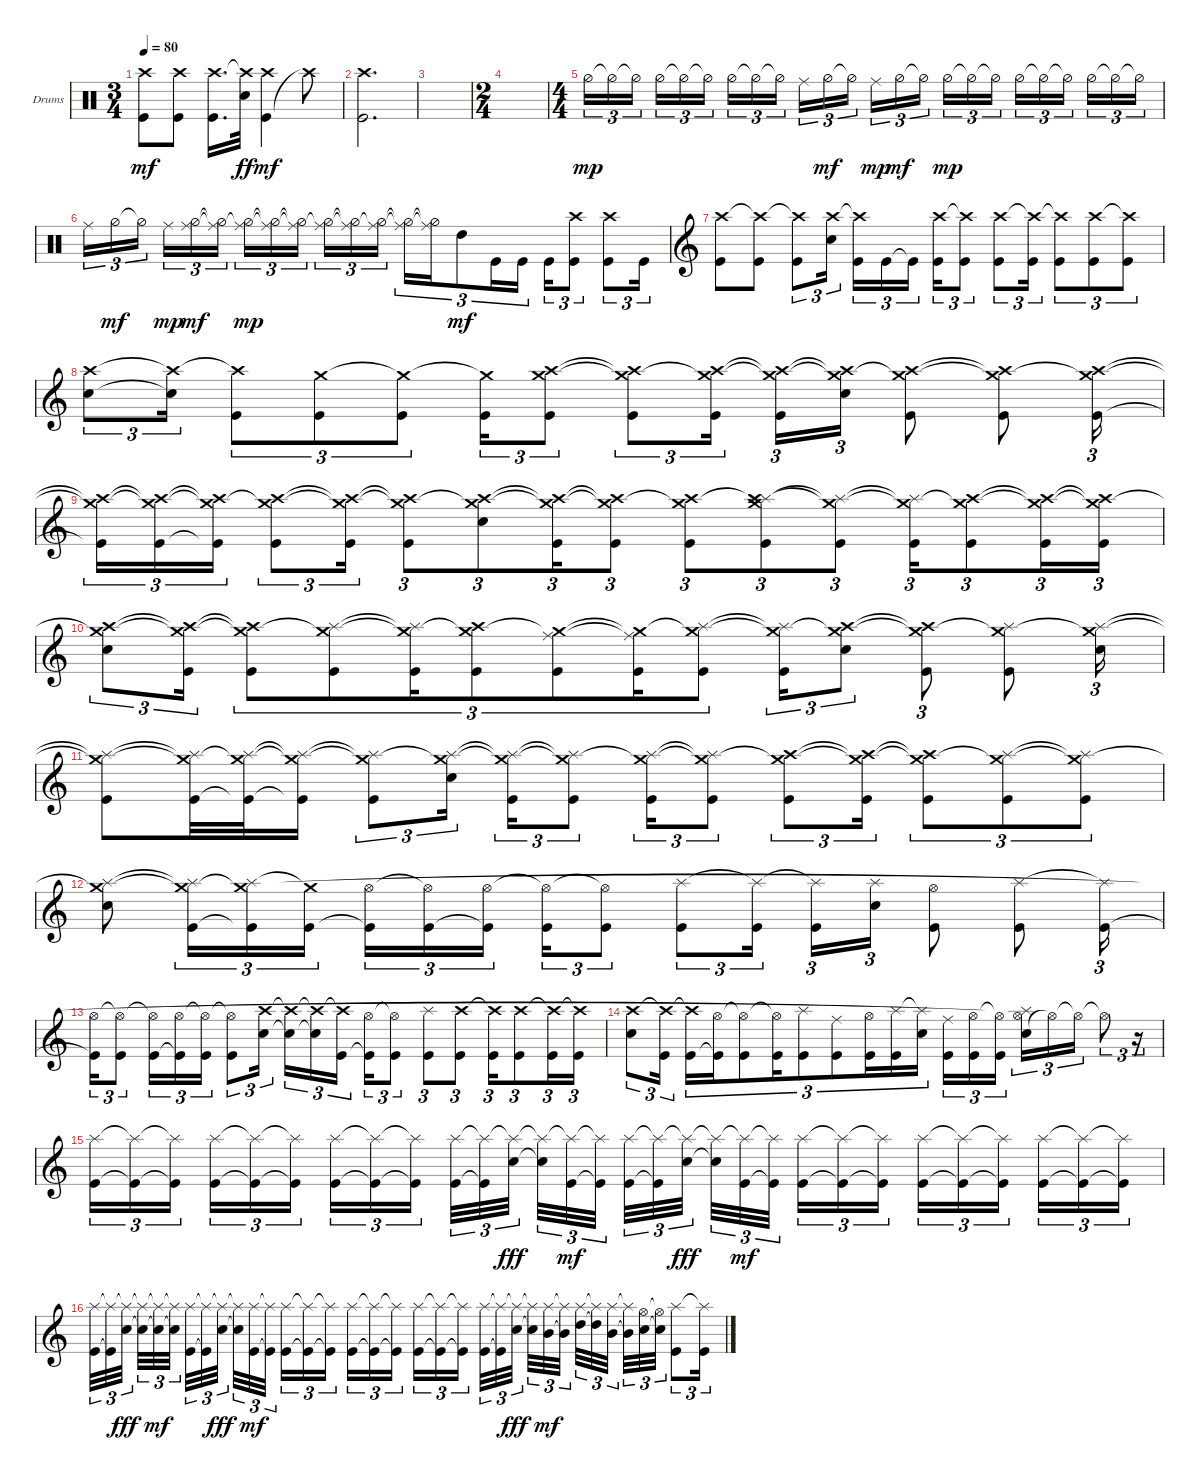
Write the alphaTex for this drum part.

\bracketExtendMode groupsimilarinstruments
\firstSystemTrackNameOrientation horizontal
\otherSystemsTrackNameOrientation horizontal
\track ("Drumkit" "Drums") {instrument percussion}
\staff {score}
\articulation defaults
\ts (3 4)
\tempo 80
\clef neutral
\ks c
("Kick (hit)" "Crash high (hit)").8{dy mf} ("Kick (hit)" "Crash high (hit)").8 ("Kick (hit)" "Crash high (hit)").16{d} ("Snare (hit) 2" "Crash high (hit)"{t}).32{dy ff} ("Kick (hit)" "Crash high (hit)").4{dy mf} "Crash high (hit)"{t}.8 |
("Kick (hit)" "Crash high (hit)").2{d} |
|
\ts (2 4)
|
\ts (4 4)
"Hi-Hat (half)".16{tu (3 2) dy mp} "Hi-Hat (half)"{t}.16{tu (3 2)} "Hi-Hat (half)"{t}.16{tu (3 2)} "Hi-Hat (half)".16{tu (3 2)} "Hi-Hat (half)"{t}.16{tu (3 2)} "Hi-Hat (half)"{t}.16{tu (3 2)} "Hi-Hat (half)".16{tu (3 2)} "Hi-Hat (half)"{t}.16{tu (3 2)} "Hi-Hat (half)"{t}.16{tu (3 2)} "Ride (middle)".16{tu (3 2)} "Hi-Hat (half)".16{tu (3 2) dy mf} "Hi-Hat (half)"{t}.16{tu (3 2)} "Ride (middle)".16{tu (3 2) dy mp} "Hi-Hat (half)".16{tu (3 2) dy mf} "Hi-Hat (half)"{t}.16{tu (3 2)} "Hi-Hat (half)".16{tu (3 2) dy mp} "Hi-Hat (half)"{t}.16{tu (3 2)} "Hi-Hat (half)"{t}.16{tu (3 2)} "Hi-Hat (half)".16{tu (3 2)} "Hi-Hat (half)"{t}.16{tu (3 2)} "Hi-Hat (half)"{t}.16{tu (3 2)} "Hi-Hat (half)".16{tu (3 2)} "Hi-Hat (half)"{t}.16{tu (3 2)} "Hi-Hat (half)"{t}.16{tu (3 2)} |
"Ride (middle)".16{tu (3 2)} "Hi-Hat (half)".16{tu (3 2) dy mf} "Hi-Hat (half)"{t}.16{tu (3 2)} "Ride (middle)".16{tu (3 2) dy mp} ("Hi-Hat (half)" "Ride (middle)").16{tu (3 2) dy mf} ("Hi-Hat (half)"{t} "Ride (middle)"{t}).16{tu (3 2)} ("Hi-Hat (half)" "Ride (middle)"{t}).16{tu (3 2) dy mp} ("Hi-Hat (half)"{t} "Ride (middle)"{t}).16{tu (3 2)} ("Hi-Hat (half)"{t} "Ride (middle)"{t}).16{tu (3 2)} ("Hi-Hat (half)" "Ride (middle)"{t}).16{tu (3 2)} ("Hi-Hat (half)"{t} "Ride (middle)"{t}).16{tu (3 2)} ("Hi-Hat (half)" "Ride (middle)"{t}).16{tu (3 2)} ("Hi-Hat (half)"{t} "Ride (middle)"{t}).16{tu (3 2)} ("Hi-Hat (half)"{t} "Ride (middle)"{t}).16{tu (3 2)} "High Tom (hit)".8{tu (3 2) dy mf} "Kick (hit)".16{tu (3 2)} "Kick (hit)".16{tu (3 2)} "Kick (hit)".16{tu (3 2)} ("Kick (hit)" "Crash high (hit)").8{tu (3 2)} ("Kick (hit)" "Crash high (hit)").8{tu (3 2)} "Kick (hit)".16{tu (3 2)} |
\clef g2
("Kick (hit)" "Crash high (hit)").8 ("Kick (hit)" "Crash high (hit)"{t}).8 ("Kick (hit)" "Crash high (hit)"{t}).8{tu (3 2)} ("Snare (hit) 2" "Crash high (hit)").16{tu (3 2)} ("Kick (hit)" "Crash high (hit)"{t}).16{tu (3 2)} "Kick (hit)".16{tu (3 2)} "Kick (hit)"{t}.16{tu (3 2)} ("Kick (hit)" "Crash high (hit)").16{tu (3 2)} ("Kick (hit)" "Crash high (hit)"{t}).8{tu (3 2)} ("Kick (hit)" "Crash high (hit)").8{tu (3 2)} ("Kick (hit)" "Crash high (hit)"{t}).16{tu (3 2)} ("Kick (hit)" "Crash high (hit)"{t}).8{tu (3 2)} ("Kick (hit)" "Crash high (hit)").8{tu (3 2)} ("Kick (hit)" "Crash high (hit)"{t}).8{tu (3 2)} |
("Snare (hit) 2" "Crash high (hit)").8{tu (3 2)} ("Snare (hit) 2"{t} "Crash high (hit)"{t}).16{tu (3 2)} ("Kick (hit)" "Crash high (hit)"{t}).8{tu (3 2)} ("Kick (hit)" "Crash medium (hit)").8{tu (3 2)} ("Kick (hit)" "Crash medium (hit)"{t}).8{tu (3 2)} ("Kick (hit)" "Crash medium (hit)"{t}).16{tu (3 2)} ("Kick (hit)" "Crash high (hit)" "Crash medium (hit)").8{tu (3 2)} ("Kick (hit)" "Crash high (hit)"{t} "Crash medium (hit)"{t}).8{tu (3 2)} ("Kick (hit)" "Crash high (hit)" "Crash medium (hit)"{t}).16{tu (3 2)} ("Kick (hit)" "Crash high (hit)"{t} "Crash medium (hit)"{t}).16{tu (3 2)} ("Snare (hit) 2" "Crash high (hit)"{t} "Crash medium (hit)"{t}).16{tu (3 2)} ("Kick (hit)" "Crash high (hit)" "Crash medium (hit)"{t}).8 ("Kick (hit)" "Crash high (hit)"{t} "Crash medium (hit)"{t}).8 ("Kick (hit)" "Crash high (hit)" "Crash medium (hit)"{t}).16{tu (3 2)} |
("Kick (hit)"{t} "Crash high (hit)"{t} "Crash medium (hit)"{t}).16{tu (3 2)} ("Kick (hit)" "Crash high (hit)"{t} "Crash medium (hit)"{t}).16{tu (3 2)} ("Kick (hit)"{t} "Crash high (hit)"{t} "Crash medium (hit)"{t}).16{tu (3 2)} ("Kick (hit)" "Crash high (hit)" "Crash medium (hit)"{t}).8{tu (3 2)} ("Kick (hit)" "Crash high (hit)"{t} "Crash medium (hit)"{t}).16{tu (3 2)} ("Kick (hit)" "Crash high (hit)"{t} "Crash medium (hit)"{t}).8{tu (3 2)} ("Snare (hit) 2" "Crash high (hit)" "Crash medium (hit)"{t}).8{tu (3 2)} ("Kick (hit)" "Crash high (hit)"{t} "Crash medium (hit)"{t}).16{tu (3 2)} ("Kick (hit)" "Crash high (hit)"{t} "Crash medium (hit)"{t}).8{tu (3 2)} ("Kick (hit)" "Crash high (hit)" "Crash medium (hit)"{t}).8{tu (3 2)} ("Kick (hit)" "Splash (hit)" "Crash high (hit)"{t} "Crash medium (hit)").8{tu (3 2)} ("Kick (hit)" "Splash (hit)"{t} "Crash medium (hit)"{t}).8{tu (3 2)} ("Kick (hit)" "Splash (hit)"{t} "Crash medium (hit)"{t}).16{tu (3 2)} ("Kick (hit)" "Crash high (hit)" "Crash medium (hit)"{t}).8{tu (3 2)} ("Kick (hit)" "Crash high (hit)"{t} "Crash medium (hit)"{t}).16{tu (3 2)} ("Kick (hit)" "Crash high (hit)"{t} "Crash medium (hit)"{t}).16{tu (3 2)} |
("Snare (hit) 2" "Crash high (hit)" "Crash medium (hit)"{t}).8{tu (3 2)} ("Kick (hit)" "Crash high (hit)"{t} "Crash medium (hit)"{t}).16{tu (3 2)} ("Kick (hit)" "Crash high (hit)"{t} "Crash medium (hit)"{t}).8{tu (3 2)} ("Kick (hit)" "Splash (hit)" "Crash medium (hit)"{t}).8{tu (3 2)} ("Kick (hit)" "Splash (hit)"{t} "Crash medium (hit)"{t}).16{tu (3 2)} ("Kick (hit)" "Crash high (hit)" "Crash medium (hit)"{t}).8{tu (3 2)} ("Kick (hit)" "Ride (middle)" "Crash medium (hit)"{t}).8{tu (3 2)} ("Kick (hit)" "Ride (middle)"{t} "Crash medium (hit)"{t}).16{tu (3 2)} ("Kick (hit)" "Splash (hit)" "Crash medium (hit)"{t}).8{tu (3 2)} ("Kick (hit)" "Splash (hit)"{t} "Crash medium (hit)"{t}).16{tu (3 2)} ("Snare (hit) 2" "Crash high (hit)" "Crash medium (hit)"{t}).8{tu (3 2)} ("Kick (hit)" "Crash high (hit)"{t} "Crash medium (hit)"{t}).8{tu (3 2)} ("Kick (hit)" "Splash (hit)" "Crash medium (hit)"{t}).8 ("Snare (hit) 2" "Splash (hit)" "Crash medium (hit)"{t}).16{tu (3 2)} |
("Kick (hit)" "Splash (hit)"{t} "Crash medium (hit)"{t}).8 ("Kick (hit)" "Splash (hit)"{t} "Crash medium (hit)"{t}).32 ("Kick (hit)"{t} "Splash (hit)" "Crash medium (hit)"{t}).32 ("Kick (hit)"{t} "Splash (hit)"{t} "Crash medium (hit)"{t}).16 ("Kick (hit)" "Splash (hit)"{t} "Crash medium (hit)"{t}).8{tu (3 2)} ("Snare (hit) 2" "Splash (hit)" "Crash medium (hit)"{t}).16{tu (3 2)} ("Kick (hit)" "Splash (hit)"{t} "Crash medium (hit)"{t}).16{tu (3 2)} ("Kick (hit)" "Splash (hit)"{t} "Crash medium (hit)"{t}).8{tu (3 2)} ("Kick (hit)" "Splash (hit)" "Crash medium (hit)"{t}).16{tu (3 2)} ("Kick (hit)" "Splash (hit)"{t} "Crash medium (hit)"{t}).8{tu (3 2)} ("Kick (hit)" "Crash high (hit)" "Crash medium (hit)"{t}).8{tu (3 2)} ("Kick (hit)" "Crash high (hit)"{t} "Crash medium (hit)"{t}).16{tu (3 2)} ("Kick (hit)" "Crash high (hit)"{t} "Crash medium (hit)"{t}).8{tu (3 2)} ("Kick (hit)" "Splash (hit)" "Crash medium (hit)"{t}).8{tu (3 2)} ("Kick (hit)" "Splash (hit)"{t} "Crash medium (hit)"{t}).8{tu (3 2)} |
("Snare (hit) 2" "Splash (hit)" "Crash medium (hit)"{t}).8 ("Kick (hit)" "Splash (hit)"{t} "Crash medium (hit)"{t}).16{tu (3 2)} ("Kick (hit)"{t} "Splash (hit)" "Crash medium (hit)"{t}).16{tu (3 2)} ("Kick (hit)" "Crash medium (hit)"{t}).16{tu (3 2)} ("Kick (hit)"{t} "Hi-Hat (open)").16{tu (3 2)} ("Kick (hit)" "Hi-Hat (open)"{t}).16{tu (3 2)} ("Kick (hit)"{t} "Hi-Hat (open)").16{tu (3 2)} ("Kick (hit)" "Hi-Hat (open)"{t}).16{tu (3 2)} ("Kick (hit)" "Hi-Hat (open)"{t}).8{tu (3 2)} ("Kick (hit)" "Splash (hit)").8{tu (3 2)} ("Kick (hit)" "Splash (hit)"{t}).16{tu (3 2)} ("Kick (hit)" "Splash (hit)"{t}).16{tu (3 2)} ("Snare (hit) 2" "Splash (hit)").16{tu (3 2)} ("Kick (hit)" "Hi-Hat (open)").8 ("Kick (hit)" "Splash (hit)").8 ("Kick (hit)" "Splash (hit)"{t}).16{tu (3 2)} |
("Kick (hit)"{t} "Hi-Hat (open)").16{tu (3 2)} ("Kick (hit)" "Hi-Hat (open)"{t}).8{tu (3 2)} ("Kick (hit)" "Hi-Hat (open)"{t}).16{tu (3 2)} ("Kick (hit)"{t} "Hi-Hat (open)").16{tu (3 2)} ("Kick (hit)" "Hi-Hat (open)"{t}).16{tu (3 2)} ("Kick (hit)" "Hi-Hat (open)"{t}).8{tu (3 2)} ("Snare (hit) 2" "Crash high (hit)").16{tu (3 2)} ("Snare (hit) 2"{t} "Crash high (hit)"{t}).16{tu (3 2)} ("Snare (hit) 2"{t} "Crash high (hit)"{t}).16{tu (3 2)} ("Kick (hit)" "Crash high (hit)"{t}).16{tu (3 2)} ("Kick (hit)"{t} "Hi-Hat (open)").16{tu (3 2)} ("Kick (hit)" "Hi-Hat (open)"{t}).8{tu (3 2)} ("Kick (hit)" "Splash (hit)").8{tu (3 2)} ("Kick (hit)" "Crash high (hit)").8{tu (3 2)} ("Kick (hit)" "Crash high (hit)"{t}).16{tu (3 2)} ("Kick (hit)" "Crash high (hit)").8{tu (3 2)} ("Kick (hit)" "Crash high (hit)"{t}).16{tu (3 2)} ("Kick (hit)" "Crash high (hit)"{t}).16{tu (3 2)} |
("Snare (hit) 2" "Crash high (hit)").8{tu (3 2)} ("Kick (hit)" "Crash high (hit)"{t}).16{tu (3 2)} ("Kick (hit)" "Crash high (hit)"{t}).16{tu (3 2)} ("Kick (hit)"{t} "Hi-Hat (open)").16{tu (3 2)} ("Kick (hit)" "Hi-Hat (open)"{t}).8{tu (3 2)} ("Kick (hit)" "Hi-Hat (open)"{t}).16{tu (3 2)} ("Kick (hit)" "Splash (hit)").8{tu (3 2)} ("Kick (hit)" "Ride (middle)").8{tu (3 2)} ("Kick (hit)" "Hi-Hat (open)").16{tu (3 2)} ("Kick (hit)" "Splash (hit)").16{tu (3 2)} ("Snare (hit) 2" "Splash (hit)"{t}).16{tu (3 2)} ("Kick (hit)" "Ride (middle)").16{tu (3 2)} ("Kick (hit)" "Hi-Hat (open)").16{tu (3 2)} ("Kick (hit)" "Hi-Hat (open)"{t}).16{tu (3 2)} ("Snare (hit) 2" "Splash (hit)" "Hi-Hat (open)"{t}).16{tu (3 2)} "Hi-Hat (open)"{t}.16{tu (3 2)} "Hi-Hat (open)"{t}.16{tu (3 2)} "Hi-Hat (open)"{t}.8{tu (3 2)} r.16{tu (3 2)} |
("Kick (hit)" "Splash (hit)").16{tu (3 2)} ("Kick (hit)"{t} "Splash (hit)"{t}).16{tu (3 2)} ("Kick (hit)"{t} "Splash (hit)"{t}).16{tu (3 2)} ("Kick (hit)" "Splash (hit)").16{tu (3 2)} ("Kick (hit)"{t} "Splash (hit)"{t}).16{tu (3 2)} ("Kick (hit)"{t} "Splash (hit)"{t}).16{tu (3 2)} ("Kick (hit)" "Splash (hit)").16{tu (3 2)} ("Kick (hit)"{t} "Splash (hit)"{t}).16{tu (3 2)} ("Kick (hit)"{t} "Splash (hit)"{t}).16{tu (3 2)} ("Kick (hit)" "Splash (hit)").32{tu (3 2)} ("Kick (hit)"{t} "Splash (hit)"{t}).32{tu (3 2)} ("Snare (hit) 2" "Splash (hit)"{t}).32{tu (3 2) dy fff} ("Snare (hit) 2"{t} "Splash (hit)"{t}).32{tu (3 2)} ("Kick (hit)" "Splash (hit)"{t}).32{tu (3 2) dy mf} ("Kick (hit)"{t} "Splash (hit)"{t}).32{tu (3 2)} ("Kick (hit)" "Splash (hit)").32{tu (3 2)} ("Kick (hit)"{t} "Splash (hit)"{t}).32{tu (3 2)} ("Snare (hit) 2" "Splash (hit)"{t}).32{tu (3 2) dy fff} ("Snare (hit) 2"{t} "Splash (hit)"{t}).32{tu (3 2)} ("Kick (hit)" "Splash (hit)"{t}).32{tu (3 2) dy mf} ("Kick (hit)"{t} "Splash (hit)"{t}).32{tu (3 2)} ("Kick (hit)" "Splash (hit)").16{tu (3 2)} ("Kick (hit)"{t} "Splash (hit)"{t}).16{tu (3 2)} ("Kick (hit)"{t} "Splash (hit)"{t}).16{tu (3 2)} ("Kick (hit)" "Splash (hit)").16{tu (3 2)} ("Kick (hit)"{t} "Splash (hit)"{t}).16{tu (3 2)} ("Kick (hit)"{t} "Splash (hit)"{t}).16{tu (3 2)} ("Kick (hit)" "Splash (hit)").16{tu (3 2)} ("Kick (hit)"{t} "Splash (hit)"{t}).16{tu (3 2)} ("Kick (hit)"{t} "Splash (hit)"{t}).16{tu (3 2)} |
("Kick (hit)" "Splash (hit)").32{tu (3 2)} ("Kick (hit)"{t} "Splash (hit)"{t}).32{tu (3 2)} ("Snare (hit) 2" "Splash (hit)"{t}).32{tu (3 2) dy fff} ("Snare (hit) 2"{t} "Splash (hit)"{t}).32{tu (3 2)} ("Snare (hit) 2"{t} "Splash (hit)"{t}).32{tu (3 2) dy mf} ("Snare (hit) 2"{t} "Splash (hit)"{t}).32{tu (3 2)} ("Kick (hit)" "Splash (hit)").32{tu (3 2)} ("Kick (hit)"{t} "Splash (hit)"{t}).32{tu (3 2)} ("Snare (hit) 2" "Splash (hit)"{t}).32{tu (3 2) dy fff} ("Snare (hit) 2"{t} "Splash (hit)"{t}).32{tu (3 2)} ("Kick (hit)" "Splash (hit)").32{tu (3 2) dy mf} ("Kick (hit)"{t} "Splash (hit)"{t}).32{tu (3 2)} ("Kick (hit)" "Splash (hit)").16{tu (3 2)} ("Kick (hit)"{t} "Splash (hit)"{t}).16{tu (3 2)} ("Kick (hit)"{t} "Splash (hit)"{t}).16{tu (3 2)} ("Kick (hit)" "Splash (hit)").16{tu (3 2)} ("Kick (hit)"{t} "Splash (hit)"{t}).16{tu (3 2)} ("Kick (hit)"{t} "Splash (hit)"{t}).16{tu (3 2)} ("Kick (hit)" "Splash (hit)").16{tu (3 2)} ("Kick (hit)"{t} "Splash (hit)"{t}).16{tu (3 2)} ("Kick (hit)"{t} "Splash (hit)"{t}).16{tu (3 2)} ("Kick (hit)" "Splash (hit)").32{tu (3 2)} ("Kick (hit)"{t} "Splash (hit)"{t}).32{tu (3 2)} ("Snare (hit) 2" "Splash (hit)"{t}).32{tu (3 2) dy fff} ("Snare (hit) 2"{t} "Splash (hit)"{t}).32{tu (3 2)} ("Splash (hit)" "Mid Tom (hit)").32{tu (3 2) dy mf} ("Splash (hit)"{t} "Mid Tom (hit)"{t}).32{tu (3 2)} ("Splash (hit)" "High Tom (hit)").32{tu (3 2)} ("Splash (hit)"{t} "High Tom (hit)"{t}).32{tu (3 2)} ("Splash (hit)" "Mid Tom (hit)").32{tu (3 2)} ("Splash (hit)"{t} "Mid Tom (hit)"{t}).32{tu (3 2)} ("Snare (hit) 2" "Hi-Hat (open)").32{tu (3 2)} ("Snare (hit) 2"{t} "Hi-Hat (open)"{t}).32{tu (3 2)} ("Kick (hit)" "Splash (hit)").8{tu (3 2)} ("Kick (hit)" "Splash (hit)"{t}).16{tu (3 2)}
